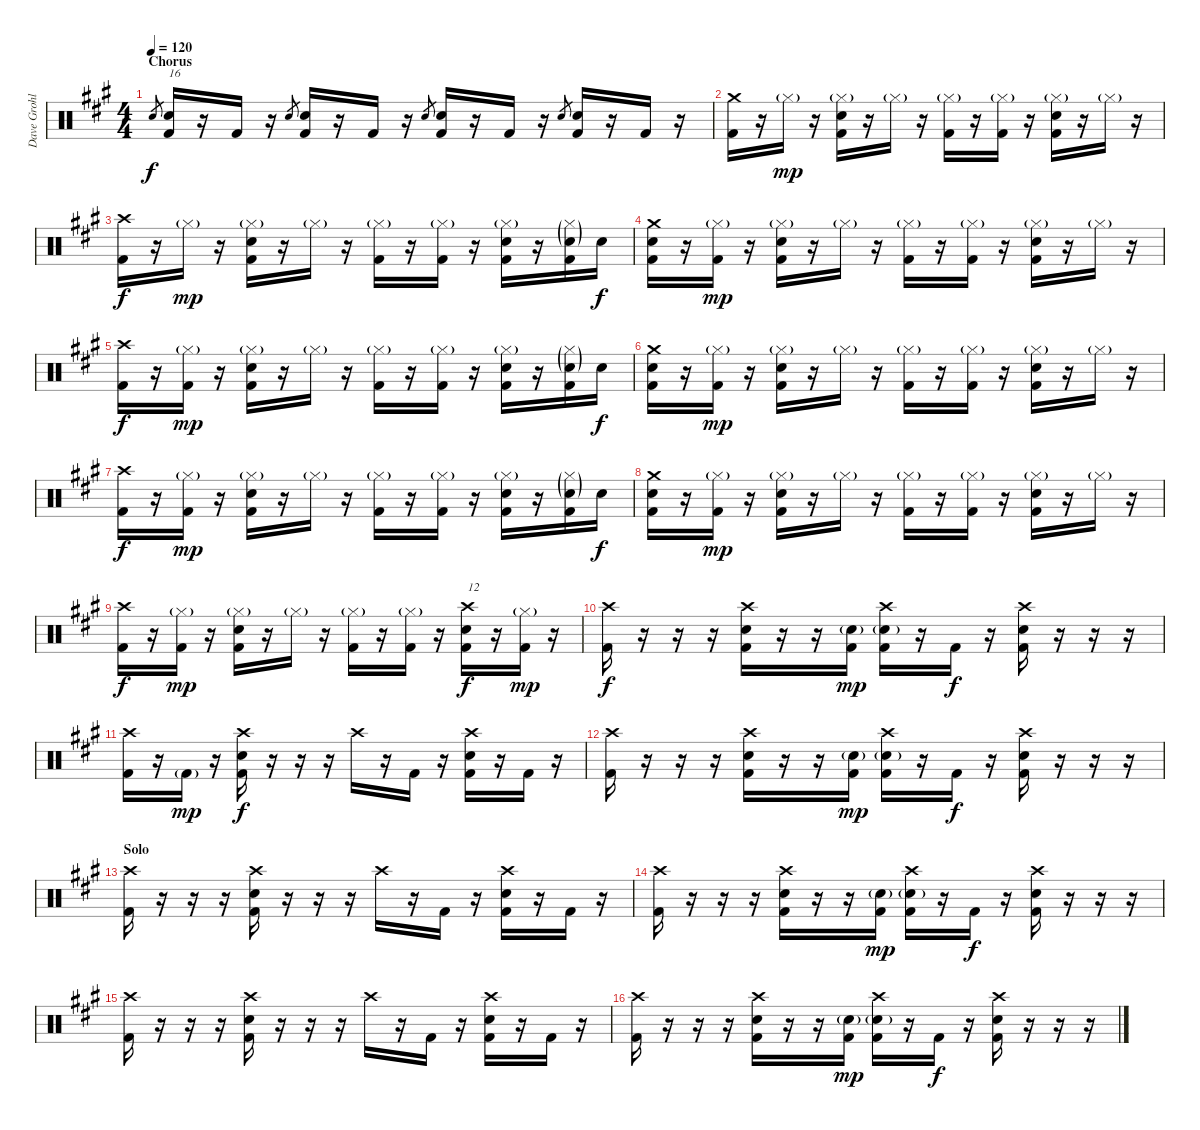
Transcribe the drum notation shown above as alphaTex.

\track ("Dave Grohl (Drums)" "Dave Grohl") {instrument percussion}
\staff {score}
\articulation defaults
\ts (4 4)
\section ("" "Chorus")
\tempo 120
\clef neutral
\ks a "Snare (hit) 2".8{gr dy f}
("Snare (hit) 2" "Kick (hit) 2").16{txt "16" volume 16} r.16 "Kick (hit) 2".16 r.16 "Snare (hit) 2".8{gr} ("Snare (hit) 2" "Kick (hit) 2").16 r.16 "Kick (hit) 2".16 r.16 "Snare (hit) 2".8{gr} ("Snare (hit) 2" "Kick (hit) 2").16 r.16 "Kick (hit) 2".16 r.16 "Snare (hit) 2".8{gr} ("Snare (hit) 2" "Kick (hit) 2").16 r.16 "Kick (hit) 2".16 r.16 |
("Crash medium (hit)" "Kick (hit) 2").16 r.16 "Hi-Hat (closed)"{g}.16{dy mp} r.16 ("Hi-Hat (closed)"{g} "Snare (hit) 2" "Kick (hit) 2").16 r.16 "Hi-Hat (closed)"{g}.16 r.16 ("Hi-Hat (closed)"{g} "Kick (hit) 2").16 r.16 ("Hi-Hat (closed)"{g} "Kick (hit) 2").16 r.16 ("Hi-Hat (closed)"{g} "Snare (hit) 2" "Kick (hit) 2").16 r.16 "Hi-Hat (closed)"{g}.16 r.16 |
("Crash high (hit)" "Kick (hit) 2").16{dy f} r.16 "Hi-Hat (closed)"{g}.16{dy mp} r.16 ("Hi-Hat (closed)"{g} "Snare (hit) 2" "Kick (hit) 2").16 r.16 "Hi-Hat (closed)"{g}.16 r.16 ("Hi-Hat (closed)"{g} "Kick (hit) 2").16 r.16 ("Hi-Hat (closed)"{g} "Kick (hit) 2").16 r.16 ("Hi-Hat (closed)"{g} "Snare (hit) 2" "Kick (hit) 2").16 r.16 ("Hi-Hat (closed)"{g} "Snare (hit) 2"{g} "Kick (hit) 2").16 "Snare (hit) 2".16{dy f} |
("Crash medium (hit)" "Snare (hit) 2" "Kick (hit) 2").16 r.16 ("Hi-Hat (closed)"{g} "Kick (hit) 2").16{dy mp} r.16 ("Hi-Hat (closed)"{g} "Snare (hit) 2" "Kick (hit) 2").16 r.16 "Hi-Hat (closed)"{g}.16 r.16 ("Hi-Hat (closed)"{g} "Kick (hit) 2").16 r.16 ("Hi-Hat (closed)"{g} "Kick (hit) 2").16 r.16 ("Hi-Hat (closed)"{g} "Snare (hit) 2" "Kick (hit) 2").16 r.16 "Hi-Hat (closed)"{g}.16 r.16 |
("Crash high (hit)" "Kick (hit) 2").16{dy f} r.16 ("Hi-Hat (closed)"{g} "Kick (hit) 2").16{dy mp} r.16 ("Hi-Hat (closed)"{g} "Snare (hit) 2" "Kick (hit) 2").16 r.16 "Hi-Hat (closed)"{g}.16 r.16 ("Hi-Hat (closed)"{g} "Kick (hit) 2").16 r.16 ("Hi-Hat (closed)"{g} "Kick (hit) 2").16 r.16 ("Hi-Hat (closed)"{g} "Snare (hit) 2" "Kick (hit) 2").16 r.16 ("Hi-Hat (closed)"{g} "Snare (hit) 2"{g} "Kick (hit) 2").16 "Snare (hit) 2".16{dy f} |
("Crash medium (hit)" "Snare (hit) 2" "Kick (hit) 2").16 r.16 ("Hi-Hat (closed)"{g} "Kick (hit) 2").16{dy mp} r.16 ("Hi-Hat (closed)"{g} "Snare (hit) 2" "Kick (hit) 2").16 r.16 "Hi-Hat (closed)"{g}.16 r.16 ("Hi-Hat (closed)"{g} "Kick (hit) 2").16 r.16 ("Hi-Hat (closed)"{g} "Kick (hit) 2").16 r.16 ("Hi-Hat (closed)"{g} "Snare (hit) 2" "Kick (hit) 2").16 r.16 "Hi-Hat (closed)"{g}.16 r.16 |
("Crash high (hit)" "Kick (hit) 2").16{dy f} r.16 ("Hi-Hat (closed)"{g} "Kick (hit) 2").16{dy mp} r.16 ("Hi-Hat (closed)"{g} "Snare (hit) 2" "Kick (hit) 2").16 r.16 "Hi-Hat (closed)"{g}.16 r.16 ("Hi-Hat (closed)"{g} "Kick (hit) 2").16 r.16 ("Hi-Hat (closed)"{g} "Kick (hit) 2").16 r.16 ("Hi-Hat (closed)"{g} "Snare (hit) 2" "Kick (hit) 2").16 r.16 ("Hi-Hat (closed)"{g} "Snare (hit) 2"{g} "Kick (hit) 2").16 "Snare (hit) 2".16{dy f} |
("Crash medium (hit)" "Snare (hit) 2" "Kick (hit) 2").16 r.16 ("Hi-Hat (closed)"{g} "Kick (hit) 2").16{dy mp} r.16 ("Hi-Hat (closed)"{g} "Snare (hit) 2" "Kick (hit) 2").16 r.16 "Hi-Hat (closed)"{g}.16 r.16 ("Hi-Hat (closed)"{g} "Kick (hit) 2").16 r.16 ("Hi-Hat (closed)"{g} "Kick (hit) 2").16 r.16 ("Hi-Hat (closed)"{g} "Snare (hit) 2" "Kick (hit) 2").16 r.16 "Hi-Hat (closed)"{g}.16 r.16 |
("Crash high (hit)" "Kick (hit) 2").16{dy f} r.16 ("Hi-Hat (closed)"{g} "Kick (hit) 2").16{dy mp} r.16 ("Hi-Hat (closed)"{g} "Snare (hit) 2" "Kick (hit) 2").16 r.16 "Hi-Hat (closed)"{g}.16 r.16 ("Hi-Hat (closed)"{g} "Kick (hit) 2").16 r.16 ("Hi-Hat (closed)"{g} "Kick (hit) 2").16 r.16 ("Crash high (hit)" "Snare (hit) 2" "Kick (hit) 2").16{txt "12" dy f volume 12} r.16 ("Hi-Hat (closed)"{g} "Kick (hit) 2").16{dy mp} r.16 |
("Crash high (hit)" "Kick (hit) 2").16{dy f} r.16 r.16 r.16 ("Crash high (hit)" "Snare (hit) 2" "Kick (hit) 2").16 r.16 r.16 ("Snare (hit) 2"{g} "Kick (hit) 2").16{dy mp} ("Crash high (hit)" "Snare (hit) 2"{g} "Kick (hit) 2").16 r.16 "Kick (hit) 2".16{dy f} r.16 ("Crash high (hit)" "Snare (hit) 2" "Kick (hit) 2").16 r.16 r.16 r.16 |
("Crash high (hit)" "Kick (hit) 2").16 r.16 "Kick (hit) 2"{g}.16{dy mp} r.16 ("Crash high (hit)" "Snare (hit) 2" "Kick (hit) 2").16{dy f} r.16 r.16 r.16 "Crash high (hit)".16 r.16 "Kick (hit) 2".16 r.16 ("Crash high (hit)" "Snare (hit) 2" "Kick (hit) 2").16 r.16 "Kick (hit) 2".16 r.16 |
("Crash high (hit)" "Kick (hit) 2").16 r.16 r.16 r.16 ("Crash high (hit)" "Snare (hit) 2" "Kick (hit) 2").16 r.16 r.16 ("Snare (hit) 2"{g} "Kick (hit) 2").16{dy mp} ("Crash high (hit)" "Snare (hit) 2"{g} "Kick (hit) 2").16 r.16 "Kick (hit) 2".16{dy f} r.16 ("Crash high (hit)" "Snare (hit) 2" "Kick (hit) 2").16 r.16 r.16 r.16 |
\section ("" "Solo")
("Crash high (hit)" "Kick (hit) 2").16 r.16 r.16 r.16 ("Crash high (hit)" "Snare (hit) 2" "Kick (hit) 2").16 r.16 r.16 r.16 "Crash high (hit)".16 r.16 "Kick (hit) 2".16 r.16 ("Crash high (hit)" "Snare (hit) 2" "Kick (hit) 2").16 r.16 "Kick (hit) 2".16 r.16 |
("Crash high (hit)" "Kick (hit) 2").16 r.16 r.16 r.16 ("Crash high (hit)" "Snare (hit) 2" "Kick (hit) 2").16 r.16 r.16 ("Snare (hit) 2"{g} "Kick (hit) 2").16{dy mp} ("Crash high (hit)" "Snare (hit) 2"{g} "Kick (hit) 2").16 r.16 "Kick (hit) 2".16{dy f} r.16 ("Crash high (hit)" "Snare (hit) 2" "Kick (hit) 2").16 r.16 r.16 r.16 |
("Crash high (hit)" "Kick (hit) 2").16 r.16 r.16 r.16 ("Crash high (hit)" "Snare (hit) 2" "Kick (hit) 2").16 r.16 r.16 r.16 "Crash high (hit)".16 r.16 "Kick (hit) 2".16 r.16 ("Crash high (hit)" "Snare (hit) 2" "Kick (hit) 2").16 r.16 "Kick (hit) 2".16 r.16 |
("Crash high (hit)" "Kick (hit) 2").16 r.16 r.16 r.16 ("Crash high (hit)" "Snare (hit) 2" "Kick (hit) 2").16 r.16 r.16 ("Snare (hit) 2"{g} "Kick (hit) 2").16{dy mp} ("Crash high (hit)" "Snare (hit) 2"{g} "Kick (hit) 2").16 r.16 "Kick (hit) 2".16{dy f} r.16 ("Crash high (hit)" "Snare (hit) 2" "Kick (hit) 2").16 r.16 r.16 r.16
